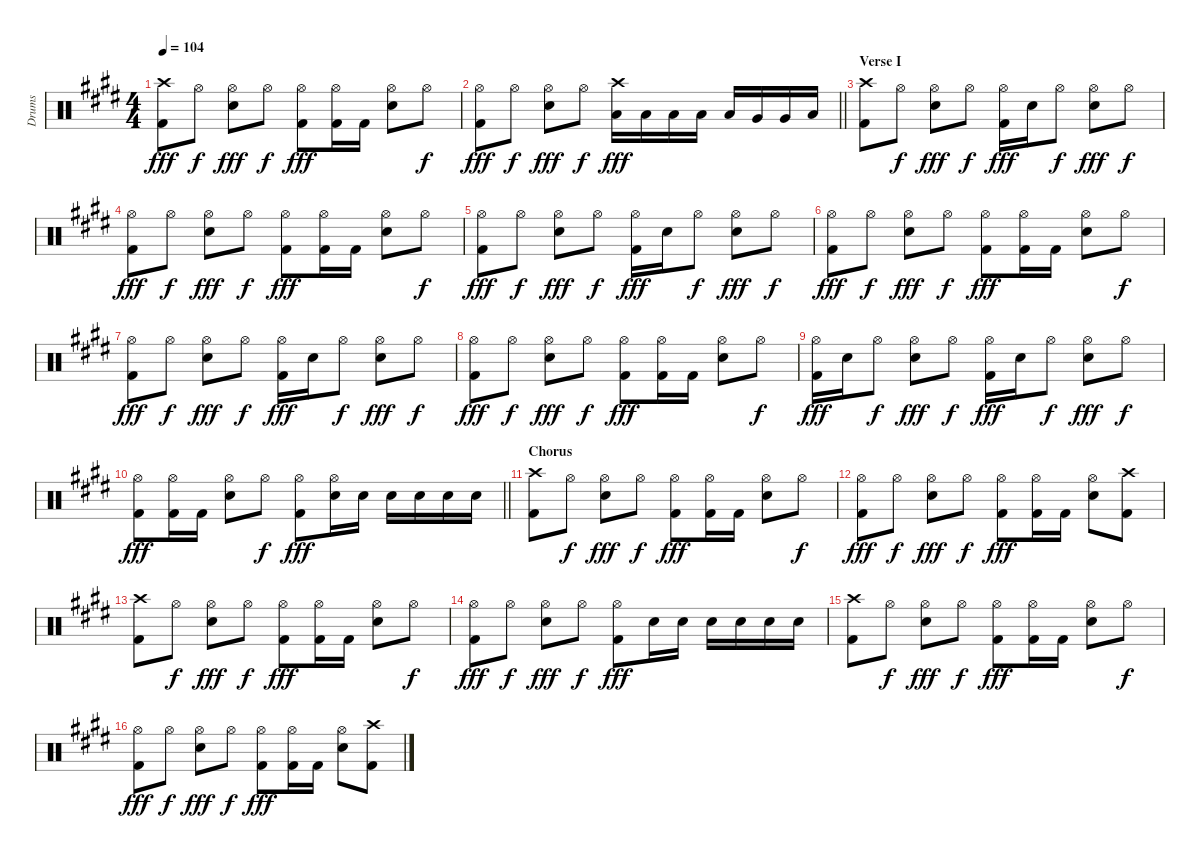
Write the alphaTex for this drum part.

\track ("Drums" "Drums") {instrument percussion}
\staff {score}
\articulation defaults
\ts (4 4)
\tempo 104
\clef neutral
\ks e
("Crash high (hit)" "Kick (hit) 2").8{dy fff} "Hi-Hat (open)".8{dy f} ("Hi-Hat (open)" "Snare (hit) 2").8{dy fff} "Hi-Hat (open)".8{dy f} ("Hi-Hat (open)" "Kick (hit) 2").8{dy fff} ("Hi-Hat (open)" "Kick (hit) 2").16 "Kick (hit) 2".16 ("Hi-Hat (open)" "Snare (hit) 2").8 "Hi-Hat (open)".8{dy f} |
\barLineRight lightlight
("Hi-Hat (open)" "Kick (hit) 2").8{dy fff} "Hi-Hat (open)".8{dy f} ("Hi-Hat (open)" "Snare (hit) 2").8{dy fff} "Hi-Hat (open)".8{dy f} ("Crash high (hit)" "Low Tom (hit)").16{dy fff} "Low Tom (hit)".16 "Low Tom (hit)".16 "Low Tom (hit)".16 "Low Tom (hit)".16 "Very Low Tom (hit)".16 "Very Low Tom (hit)".16 "Low Floor Tom (hit)".16 |
\section ("" "Verse I")
("Crash high (hit)" "Kick (hit) 2").8 "Hi-Hat (open)".8{dy f} ("Hi-Hat (open)" "Snare (hit) 2").8{dy fff} "Hi-Hat (open)".8{dy f} ("Hi-Hat (open)" "Kick (hit) 2").16{dy fff} "Snare (hit) 2".16 "Hi-Hat (open)".8{dy f} ("Hi-Hat (open)" "Snare (hit) 2").8{dy fff} "Hi-Hat (open)".8{dy f} |
("Hi-Hat (open)" "Kick (hit) 2").8{dy fff} "Hi-Hat (open)".8{dy f} ("Hi-Hat (open)" "Snare (hit) 2").8{dy fff} "Hi-Hat (open)".8{dy f} ("Hi-Hat (open)" "Kick (hit) 2").8{dy fff} ("Hi-Hat (open)" "Kick (hit) 2").16 "Kick (hit) 2".16 ("Hi-Hat (open)" "Snare (hit) 2").8 "Hi-Hat (open)".8{dy f} |
("Hi-Hat (open)" "Kick (hit) 2").8{dy fff} "Hi-Hat (open)".8{dy f} ("Hi-Hat (open)" "Snare (hit) 2").8{dy fff} "Hi-Hat (open)".8{dy f} ("Hi-Hat (open)" "Kick (hit) 2").16{dy fff} "Snare (hit) 2".16 "Hi-Hat (open)".8{dy f} ("Hi-Hat (open)" "Snare (hit) 2").8{dy fff} "Hi-Hat (open)".8{dy f} |
("Hi-Hat (open)" "Kick (hit) 2").8{dy fff} "Hi-Hat (open)".8{dy f} ("Hi-Hat (open)" "Snare (hit) 2").8{dy fff} "Hi-Hat (open)".8{dy f} ("Hi-Hat (open)" "Kick (hit) 2").8{dy fff} ("Hi-Hat (open)" "Kick (hit) 2").16 "Kick (hit) 2".16 ("Hi-Hat (open)" "Snare (hit) 2").8 "Hi-Hat (open)".8{dy f} |
("Hi-Hat (open)" "Kick (hit) 2").8{dy fff} "Hi-Hat (open)".8{dy f} ("Hi-Hat (open)" "Snare (hit) 2").8{dy fff} "Hi-Hat (open)".8{dy f} ("Hi-Hat (open)" "Kick (hit) 2").16{dy fff} "Snare (hit) 2".16 "Hi-Hat (open)".8{dy f} ("Hi-Hat (open)" "Snare (hit) 2").8{dy fff} "Hi-Hat (open)".8{dy f} |
("Hi-Hat (open)" "Kick (hit) 2").8{dy fff} "Hi-Hat (open)".8{dy f} ("Hi-Hat (open)" "Snare (hit) 2").8{dy fff} "Hi-Hat (open)".8{dy f} ("Hi-Hat (open)" "Kick (hit) 2").8{dy fff} ("Hi-Hat (open)" "Kick (hit) 2").16 "Kick (hit) 2".16 ("Hi-Hat (open)" "Snare (hit) 2").8 "Hi-Hat (open)".8{dy f} |
("Hi-Hat (open)" "Kick (hit) 2").16{dy fff} "Snare (hit) 2".16 "Hi-Hat (open)".8{dy f} ("Hi-Hat (open)" "Snare (hit) 2").8{dy fff} "Hi-Hat (open)".8{dy f} ("Hi-Hat (open)" "Kick (hit) 2").16{dy fff} "Snare (hit) 2".16 "Hi-Hat (open)".8{dy f} ("Hi-Hat (open)" "Snare (hit) 2").8{dy fff} "Hi-Hat (open)".8{dy f} |
\barLineRight lightlight
("Hi-Hat (open)" "Kick (hit) 2").8{dy fff} ("Hi-Hat (open)" "Kick (hit) 2").16 "Kick (hit) 2".16 ("Hi-Hat (open)" "Snare (hit) 2").8 "Hi-Hat (open)".8{dy f} ("Hi-Hat (open)" "Kick (hit) 2").8{dy fff} ("Hi-Hat (open)" "Snare (hit) 2").16 "Snare (hit) 2".16 "Snare (hit) 2".16 "Snare (hit) 2".16 "Snare (hit) 2".16 "Snare (hit) 2".16 |
\section ("" "Chorus")
("Crash high (hit)" "Kick (hit) 2").8 "Hi-Hat (open)".8{dy f} ("Hi-Hat (open)" "Snare (hit) 2").8{dy fff} "Hi-Hat (open)".8{dy f} ("Hi-Hat (open)" "Kick (hit) 2").8{dy fff} ("Hi-Hat (open)" "Kick (hit) 2").16 "Kick (hit) 2".16 ("Hi-Hat (open)" "Snare (hit) 2").8 "Hi-Hat (open)".8{dy f} |
("Hi-Hat (open)" "Kick (hit) 2").8{dy fff} "Hi-Hat (open)".8{dy f} ("Hi-Hat (open)" "Snare (hit) 2").8{dy fff} "Hi-Hat (open)".8{dy f} ("Hi-Hat (open)" "Kick (hit) 2").8{dy fff} ("Hi-Hat (open)" "Kick (hit) 2").16 "Kick (hit) 2".16 ("Hi-Hat (open)" "Snare (hit) 2").8 ("Crash high (hit)" "Kick (hit) 2").8 |
("Crash high (hit)" "Kick (hit) 2").8 "Hi-Hat (open)".8{dy f} ("Hi-Hat (open)" "Snare (hit) 2").8{dy fff} "Hi-Hat (open)".8{dy f} ("Hi-Hat (open)" "Kick (hit) 2").8{dy fff} ("Hi-Hat (open)" "Kick (hit) 2").16 "Kick (hit) 2".16 ("Hi-Hat (open)" "Snare (hit) 2").8 "Hi-Hat (open)".8{dy f} |
("Hi-Hat (open)" "Kick (hit) 2").8{dy fff} "Hi-Hat (open)".8{dy f} ("Hi-Hat (open)" "Snare (hit) 2").8{dy fff} "Hi-Hat (open)".8{dy f} ("Hi-Hat (open)" "Kick (hit) 2").8{dy fff} "Snare (hit) 2".16 "Snare (hit) 2".16 "Snare (hit) 2".16 "Snare (hit) 2".16 "Snare (hit) 2".16 "Snare (hit) 2".16 |
("Crash high (hit)" "Kick (hit) 2").8 "Hi-Hat (open)".8{dy f} ("Hi-Hat (open)" "Snare (hit) 2").8{dy fff} "Hi-Hat (open)".8{dy f} ("Hi-Hat (open)" "Kick (hit) 2").8{dy fff} ("Hi-Hat (open)" "Kick (hit) 2").16 "Kick (hit) 2".16 ("Hi-Hat (open)" "Snare (hit) 2").8 "Hi-Hat (open)".8{dy f} |
("Hi-Hat (open)" "Kick (hit) 2").8{dy fff} "Hi-Hat (open)".8{dy f} ("Hi-Hat (open)" "Snare (hit) 2").8{dy fff} "Hi-Hat (open)".8{dy f} ("Hi-Hat (open)" "Kick (hit) 2").8{dy fff} ("Hi-Hat (open)" "Kick (hit) 2").16 "Kick (hit) 2".16 ("Hi-Hat (open)" "Snare (hit) 2").8 ("Crash high (hit)" "Kick (hit) 2").8
